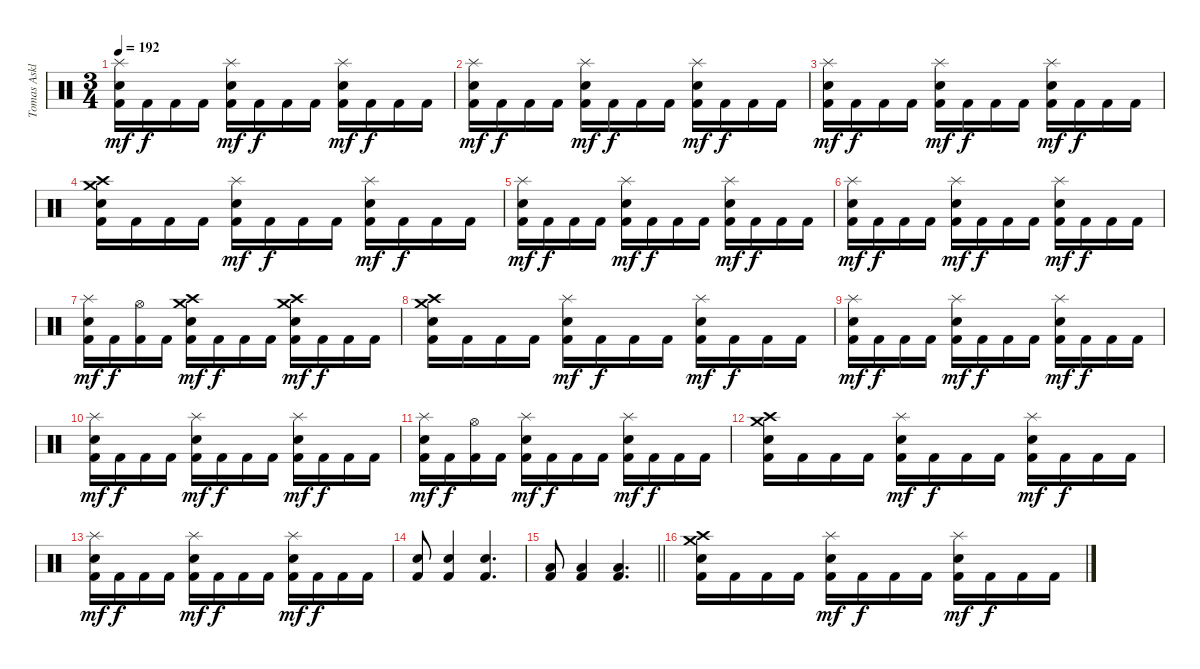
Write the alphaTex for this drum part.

\track ("Tomas Asklund" "Tomas Askl") {instrument percussion}
\staff {score}
\articulation defaults
\ts (3 4)
\tempo 192
\clef neutral
\ks c
("Splash (hit)" "Snare (hit) 2" "Kick (hit) 2").16{dy mf} "Kick (hit) 2".16{dy f} "Kick (hit) 2".16 "Kick (hit) 2".16 ("Splash (hit)" "Snare (hit) 2" "Kick (hit) 2").16{dy mf} "Kick (hit) 2".16{dy f} "Kick (hit) 2".16 "Kick (hit) 2".16 ("Splash (hit)" "Snare (hit) 2" "Kick (hit) 2").16{dy mf} "Kick (hit) 2".16{dy f} "Kick (hit) 2".16 "Kick (hit) 2".16 |
("Splash (hit)" "Snare (hit) 2" "Kick (hit) 2").16{dy mf} "Kick (hit) 2".16{dy f} "Kick (hit) 2".16 "Kick (hit) 2".16 ("Splash (hit)" "Snare (hit) 2" "Kick (hit) 2").16{dy mf} "Kick (hit) 2".16{dy f} "Kick (hit) 2".16 "Kick (hit) 2".16 ("Splash (hit)" "Snare (hit) 2" "Kick (hit) 2").16{dy mf} "Kick (hit) 2".16{dy f} "Kick (hit) 2".16 "Kick (hit) 2".16 |
("Splash (hit)" "Snare (hit) 2" "Kick (hit) 2").16{dy mf} "Kick (hit) 2".16{dy f} "Kick (hit) 2".16 "Kick (hit) 2".16 ("Splash (hit)" "Snare (hit) 2" "Kick (hit) 2").16{dy mf} "Kick (hit) 2".16{dy f} "Kick (hit) 2".16 "Kick (hit) 2".16 ("Splash (hit)" "Snare (hit) 2" "Kick (hit) 2").16{dy mf} "Kick (hit) 2".16{dy f} "Kick (hit) 2".16 "Kick (hit) 2".16 |
("Crash high (hit)" "Crash medium (hit)" "Snare (hit) 2" "Kick (hit) 2").16 "Kick (hit) 2".16 "Kick (hit) 2".16 "Kick (hit) 2".16 ("Splash (hit)" "Snare (hit) 2" "Kick (hit) 2").16{dy mf} "Kick (hit) 2".16{dy f} "Kick (hit) 2".16 "Kick (hit) 2".16 ("Splash (hit)" "Snare (hit) 2" "Kick (hit) 2").16{dy mf} "Kick (hit) 2".16{dy f} "Kick (hit) 2".16 "Kick (hit) 2".16 |
("Splash (hit)" "Snare (hit) 2" "Kick (hit) 2").16{dy mf} "Kick (hit) 2".16{dy f} "Kick (hit) 2".16 "Kick (hit) 2".16 ("Splash (hit)" "Snare (hit) 2" "Kick (hit) 2").16{dy mf} "Kick (hit) 2".16{dy f} "Kick (hit) 2".16 "Kick (hit) 2".16 ("Splash (hit)" "Snare (hit) 2" "Kick (hit) 2").16{dy mf} "Kick (hit) 2".16{dy f} "Kick (hit) 2".16 "Kick (hit) 2".16 |
("Splash (hit)" "Snare (hit) 2" "Kick (hit) 2").16{dy mf} "Kick (hit) 2".16{dy f} "Kick (hit) 2".16 "Kick (hit) 2".16 ("Splash (hit)" "Snare (hit) 2" "Kick (hit) 2").16{dy mf} "Kick (hit) 2".16{dy f} "Kick (hit) 2".16 "Kick (hit) 2".16 ("Splash (hit)" "Snare (hit) 2" "Kick (hit) 2").16{dy mf} "Kick (hit) 2".16{dy f} "Kick (hit) 2".16 "Kick (hit) 2".16 |
("Splash (hit)" "Snare (hit) 2" "Kick (hit) 2").16{dy mf} "Kick (hit) 2".16{dy f} ("Hi-Hat (open)" "Kick (hit) 2").16 "Kick (hit) 2".16 ("Crash medium (hit)" "Crash high (hit)" "Snare (hit) 2" "Kick (hit) 2").16{dy mf} "Kick (hit) 2".16{dy f} "Kick (hit) 2".16 "Kick (hit) 2".16 ("Crash medium (hit)" "Crash high (hit)" "Snare (hit) 2" "Kick (hit) 2").16{dy mf} "Kick (hit) 2".16{dy f} "Kick (hit) 2".16 "Kick (hit) 2".16 |
("Crash high (hit)" "Crash medium (hit)" "Snare (hit) 2" "Kick (hit) 2").16 "Kick (hit) 2".16 "Kick (hit) 2".16 "Kick (hit) 2".16 ("Splash (hit)" "Snare (hit) 2" "Kick (hit) 2").16{dy mf} "Kick (hit) 2".16{dy f} "Kick (hit) 2".16 "Kick (hit) 2".16 ("Splash (hit)" "Snare (hit) 2" "Kick (hit) 2").16{dy mf} "Kick (hit) 2".16{dy f} "Kick (hit) 2".16 "Kick (hit) 2".16 |
("Splash (hit)" "Snare (hit) 2" "Kick (hit) 2").16{dy mf} "Kick (hit) 2".16{dy f} "Kick (hit) 2".16 "Kick (hit) 2".16 ("Splash (hit)" "Snare (hit) 2" "Kick (hit) 2").16{dy mf} "Kick (hit) 2".16{dy f} "Kick (hit) 2".16 "Kick (hit) 2".16 ("Splash (hit)" "Snare (hit) 2" "Kick (hit) 2").16{dy mf} "Kick (hit) 2".16{dy f} "Kick (hit) 2".16 "Kick (hit) 2".16 |
("Splash (hit)" "Snare (hit) 2" "Kick (hit) 2").16{dy mf} "Kick (hit) 2".16{dy f} "Kick (hit) 2".16 "Kick (hit) 2".16 ("Splash (hit)" "Snare (hit) 2" "Kick (hit) 2").16{dy mf} "Kick (hit) 2".16{dy f} "Kick (hit) 2".16 "Kick (hit) 2".16 ("Splash (hit)" "Snare (hit) 2" "Kick (hit) 2").16{dy mf} "Kick (hit) 2".16{dy f} "Kick (hit) 2".16 "Kick (hit) 2".16 |
("Splash (hit)" "Snare (hit) 2" "Kick (hit) 2").16{dy mf} "Kick (hit) 2".16{dy f} ("Hi-Hat (open)" "Kick (hit) 2").16 "Kick (hit) 2".16 ("Splash (hit)" "Snare (hit) 2" "Kick (hit) 2").16{dy mf} "Kick (hit) 2".16{dy f} "Kick (hit) 2".16 "Kick (hit) 2".16 ("Splash (hit)" "Snare (hit) 2" "Kick (hit) 2").16{dy mf} "Kick (hit) 2".16{dy f} "Kick (hit) 2".16 "Kick (hit) 2".16 |
("Crash high (hit)" "Crash medium (hit)" "Snare (hit) 2" "Kick (hit) 2").16 "Kick (hit) 2".16 "Kick (hit) 2".16 "Kick (hit) 2".16 ("Splash (hit)" "Snare (hit) 2" "Kick (hit) 2").16{dy mf} "Kick (hit) 2".16{dy f} "Kick (hit) 2".16 "Kick (hit) 2".16 ("Splash (hit)" "Snare (hit) 2" "Kick (hit) 2").16{dy mf} "Kick (hit) 2".16{dy f} "Kick (hit) 2".16 "Kick (hit) 2".16 |
("Splash (hit)" "Snare (hit) 2" "Kick (hit) 2").16{dy mf} "Kick (hit) 2".16{dy f} "Kick (hit) 2".16 "Kick (hit) 2".16 ("Splash (hit)" "Snare (hit) 2" "Kick (hit) 2").16{dy mf} "Kick (hit) 2".16{dy f} "Kick (hit) 2".16 "Kick (hit) 2".16 ("Splash (hit)" "Snare (hit) 2" "Kick (hit) 2").16{dy mf} "Kick (hit) 2".16{dy f} "Kick (hit) 2".16 "Kick (hit) 2".16 |
("Snare (hit) 2" "Kick (hit) 2").8 ("Snare (hit) 2" "Kick (hit) 2").4 ("Snare (hit) 2" "Kick (hit) 2").4{d} |
\barLineRight lightlight
("Low Tom (hit)" "Kick (hit) 2").8 ("Low Tom (hit)" "Kick (hit) 2").4 ("Low Tom (hit)" "Kick (hit) 2").4{d} |
("Crash high (hit)" "Crash medium (hit)" "Snare (hit) 2" "Kick (hit) 2").16 "Kick (hit) 2".16 "Kick (hit) 2".16 "Kick (hit) 2".16 ("Splash (hit)" "Snare (hit) 2" "Kick (hit) 2").16{dy mf} "Kick (hit) 2".16{dy f} "Kick (hit) 2".16 "Kick (hit) 2".16 ("Splash (hit)" "Snare (hit) 2" "Kick (hit) 2").16{dy mf} "Kick (hit) 2".16{dy f} "Kick (hit) 2".16 "Kick (hit) 2".16
